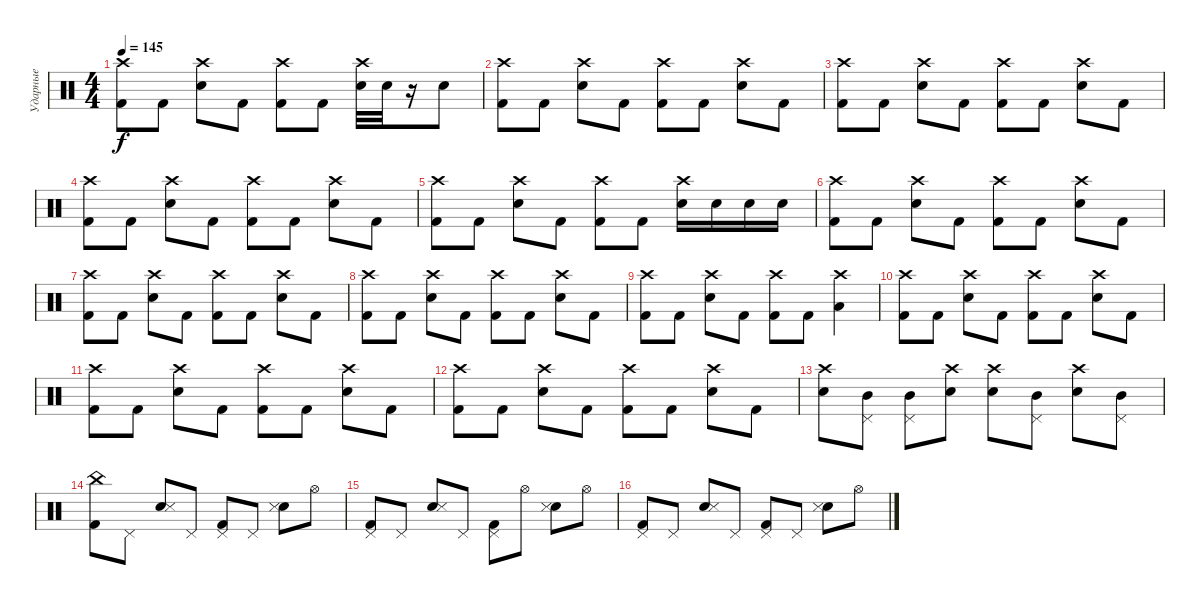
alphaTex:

\track ("Ударные" "Ударные") {instrument percussion}
\staff {score}
\articulation defaults
\ts (4 4)
\tempo 145
\clef neutral
\ks c
("Crash high (hit)" "Kick (hit) 2").8{dy f} "Kick (hit) 2".8 ("Crash high (hit)" "Electric Snare (hit)").8 "Kick (hit) 2".8 ("Crash high (hit)" "Kick (hit) 2").8 "Kick (hit) 2".8 ("Crash high (hit)" "Electric Snare (hit)").32 "Electric Snare (hit)".32 r.16 "Electric Snare (hit)".8 |
("Crash high (hit)" "Kick (hit) 2").8 "Kick (hit) 2".8 ("Crash high (hit)" "Electric Snare (hit)").8 "Kick (hit) 2".8 ("Crash high (hit)" "Kick (hit) 2").8 "Kick (hit) 2".8 ("Crash high (hit)" "Electric Snare (hit)").8 "Kick (hit) 2".8 |
("Crash high (hit)" "Kick (hit) 2").8 "Kick (hit) 2".8 ("Crash high (hit)" "Electric Snare (hit)").8 "Kick (hit) 2".8 ("Crash high (hit)" "Kick (hit) 2").8 "Kick (hit) 2".8 ("Crash high (hit)" "Electric Snare (hit)").8 "Kick (hit) 2".8 |
("Crash high (hit)" "Kick (hit) 2").8 "Kick (hit) 2".8 ("Crash high (hit)" "Electric Snare (hit)").8 "Kick (hit) 2".8 ("Crash high (hit)" "Kick (hit) 2").8 "Kick (hit) 2".8 ("Crash high (hit)" "Electric Snare (hit)").8 "Kick (hit) 2".8 |
("Crash high (hit)" "Kick (hit) 2").8 "Kick (hit) 2".8 ("Crash high (hit)" "Electric Snare (hit)").8 "Kick (hit) 2".8 ("Crash high (hit)" "Kick (hit) 2").8 "Kick (hit) 2".8 ("Crash high (hit)" "Electric Snare (hit)").16 "Electric Snare (hit)".16 "Electric Snare (hit)".16 "Electric Snare (hit)".16 |
("Crash high (hit)" "Kick (hit) 2").8 "Kick (hit) 2".8 ("Crash high (hit)" "Electric Snare (hit)").8 "Kick (hit) 2".8 ("Crash high (hit)" "Kick (hit) 2").8 "Kick (hit) 2".8 ("Crash high (hit)" "Electric Snare (hit)").8 "Kick (hit) 2".8 |
("Crash high (hit)" "Kick (hit) 2").8 "Kick (hit) 2".8 ("Crash high (hit)" "Electric Snare (hit)").8 "Kick (hit) 2".8 ("Crash high (hit)" "Kick (hit) 2").8 "Kick (hit) 2".8 ("Crash high (hit)" "Electric Snare (hit)").8 "Kick (hit) 2".8 |
("Crash high (hit)" "Kick (hit) 2").8 "Kick (hit) 2".8 ("Crash high (hit)" "Electric Snare (hit)").8 "Kick (hit) 2".8 ("Crash high (hit)" "Kick (hit) 2").8 "Kick (hit) 2".8 ("Crash high (hit)" "Electric Snare (hit)").8 "Kick (hit) 2".8 |
("Crash high (hit)" "Kick (hit) 2").8 "Kick (hit) 2".8 ("Crash high (hit)" "Electric Snare (hit)").8 "Kick (hit) 2".8 ("Crash high (hit)" "Kick (hit) 2").8 "Kick (hit) 2".8 ("Crash high (hit)" "Low Tom (hit)").4 |
("Crash high (hit)" "Kick (hit) 2").8 "Kick (hit) 2".8 ("Crash high (hit)" "Electric Snare (hit)").8 "Kick (hit) 2".8 ("Crash high (hit)" "Kick (hit) 2").8 "Kick (hit) 2".8 ("Crash high (hit)" "Electric Snare (hit)").8 "Kick (hit) 2".8 |
("Crash high (hit)" "Kick (hit) 2").8 "Kick (hit) 2".8 ("Crash high (hit)" "Electric Snare (hit)").8 "Kick (hit) 2".8 ("Crash high (hit)" "Kick (hit) 2").8 "Kick (hit) 2".8 ("Crash high (hit)" "Electric Snare (hit)").8 "Kick (hit) 2".8 |
("Crash high (hit)" "Kick (hit) 2").8 "Kick (hit) 2".8 ("Crash high (hit)" "Electric Snare (hit)").8 "Kick (hit) 2".8 ("Crash high (hit)" "Kick (hit) 2").8 "Kick (hit) 2".8 ("Crash high (hit)" "Electric Snare (hit)").8 "Kick (hit) 2".8 |
("Crash high (hit)" "Electric Snare (hit)").8 ("Pedal Hi-Hat (hit)" "Mid Tom (hit)").8 ("Pedal Hi-Hat (hit)" "Mid Tom (hit)").8 ("Crash high (hit)" "Electric Snare (hit)").8 ("Crash high (hit)" "Electric Snare (hit)").8 ("Pedal Hi-Hat (hit)" "Mid Tom (hit)").8 ("Crash high (hit)" "Electric Snare (hit)").8 ("Pedal Hi-Hat (hit)" "Mid Tom (hit)").8 |
("China (hit)" "Kick (hit) 2").8 "Pedal Hi-Hat (hit)".8 ("Electric Snare (hit)" "Snare (side stick) 3").8 "Pedal Hi-Hat (hit)".8 ("Pedal Hi-Hat (hit)" "Kick (hit) 2").8 "Pedal Hi-Hat (hit)".8 ("Electric Snare (hit)" "Snare (side stick) 3").8 "Hi-Hat (open)".8 |
("Pedal Hi-Hat (hit)" "Kick (hit) 2").8 "Pedal Hi-Hat (hit)".8 ("Electric Snare (hit)" "Snare (side stick) 3").8 "Pedal Hi-Hat (hit)".8 ("Pedal Hi-Hat (hit)" "Kick (hit) 2").8 "Hi-Hat (open)".8 ("Electric Snare (hit)" "Snare (side stick) 3").8 "Hi-Hat (open)".8 |
("Pedal Hi-Hat (hit)" "Kick (hit) 2").8 "Pedal Hi-Hat (hit)".8 ("Electric Snare (hit)" "Snare (side stick) 3").8 "Pedal Hi-Hat (hit)".8 ("Pedal Hi-Hat (hit)" "Kick (hit) 2").8 "Pedal Hi-Hat (hit)".8 ("Electric Snare (hit)" "Snare (side stick) 3").8 "Hi-Hat (open)".8
